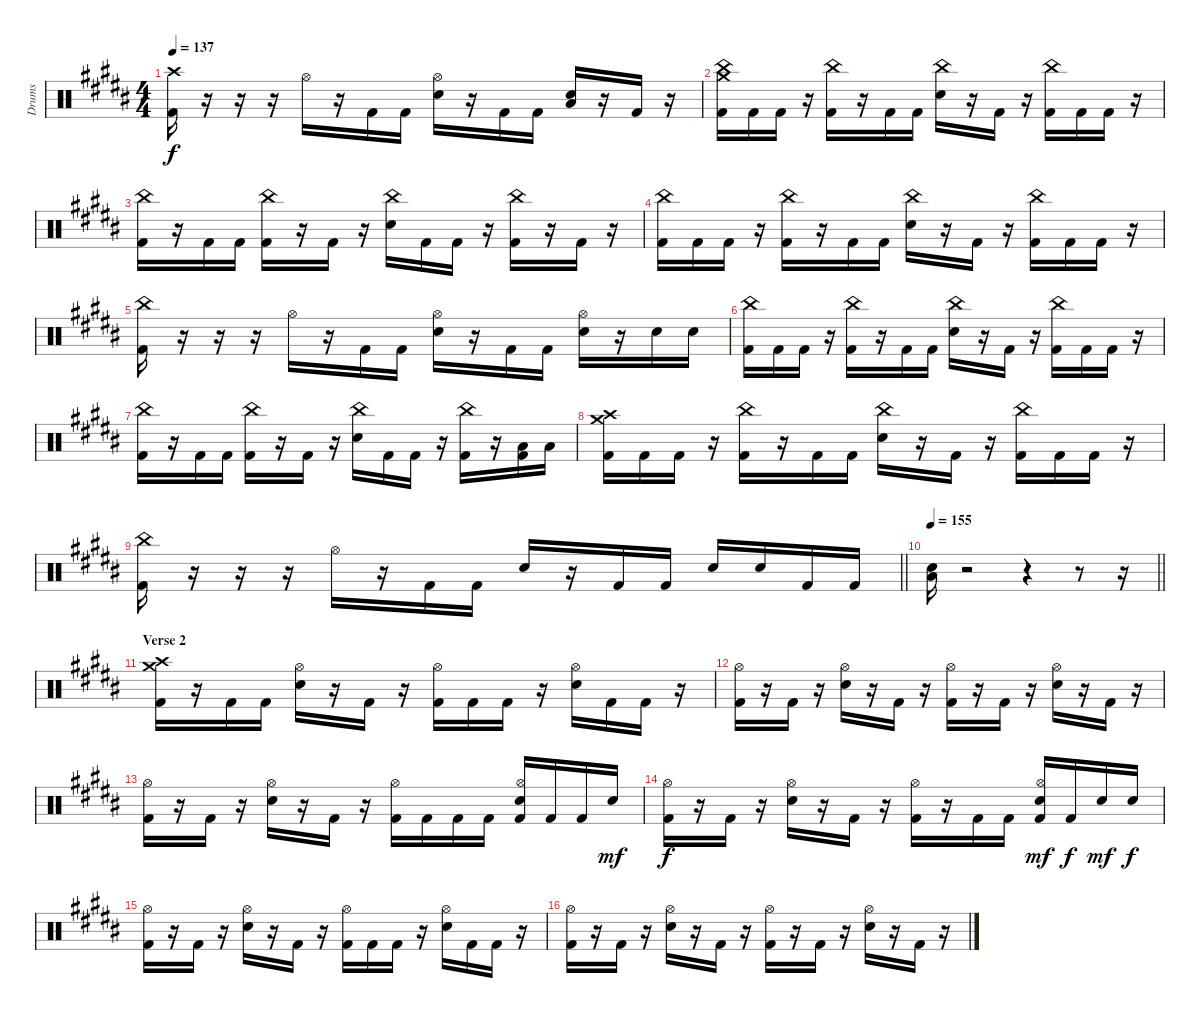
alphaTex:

\track ("Drums" "Drums") {instrument percussion}
\staff {score}
\articulation defaults
\ts (4 4)
\tempo 137
\clef neutral
\ks g#minor
("Crash high (hit)" "Kick (hit) 2").16{dy f} r.16 r.16 r.16 "Hi-Hat (open)".16 r.16 "Kick (hit) 2".16 "Kick (hit) 2".16 ("Hi-Hat (open)" "Electric Snare (hit)").16 r.16 "Kick (hit) 2".16 "Kick (hit) 2".16 ("Low Floor Tom (hit)" "Electric Snare (hit)").16 r.16 "Kick (hit) 2".16 r.16 |
("Crash medium (hit)" "China (hit)" "Kick (hit) 2").16 "Kick (hit) 2".16 "Kick (hit) 2".16 r.16 ("China (hit)" "Kick (hit) 2").16 r.16 "Kick (hit) 2".16 "Kick (hit) 2".16 ("China (hit)" "Electric Snare (hit)").16 r.16 "Kick (hit) 2".16 r.16 ("China (hit)" "Kick (hit) 2").16 "Kick (hit) 2".16 "Kick (hit) 2".16 r.16 |
("China (hit)" "Kick (hit) 2").16 r.16 "Kick (hit) 2".16 "Kick (hit) 2".16 ("China (hit)" "Kick (hit) 2").16 r.16 "Kick (hit) 2".16 r.16 ("China (hit)" "Electric Snare (hit)").16 "Kick (hit) 2".16 "Kick (hit) 2".16 r.16 ("China (hit)" "Kick (hit) 2").16 r.16 "Kick (hit) 2".16 r.16 |
("China (hit)" "Kick (hit) 2").16 "Kick (hit) 2".16 "Kick (hit) 2".16 r.16 ("China (hit)" "Kick (hit) 2").16 r.16 "Kick (hit) 2".16 "Kick (hit) 2".16 ("China (hit)" "Electric Snare (hit)").16 r.16 "Kick (hit) 2".16 r.16 ("China (hit)" "Kick (hit) 2").16 "Kick (hit) 2".16 "Kick (hit) 2".16 r.16 |
("China (hit)" "Kick (hit) 2").16 r.16 r.16 r.16 "Hi-Hat (open)".16 r.16 "Kick (hit) 2".16 "Kick (hit) 2".16 ("Hi-Hat (open)" "Electric Snare (hit)").16 r.16 "Kick (hit) 2".16 "Kick (hit) 2".16 ("Hi-Hat (open)" "Electric Snare (hit)").16 r.16 "Electric Snare (hit)".16 "Electric Snare (hit)".16 |
("China (hit)" "Kick (hit) 2").16 "Kick (hit) 2".16 "Kick (hit) 2".16 r.16 ("China (hit)" "Kick (hit) 2").16 r.16 "Kick (hit) 2".16 "Kick (hit) 2".16 ("China (hit)" "Electric Snare (hit)").16 r.16 "Kick (hit) 2".16 r.16 ("China (hit)" "Kick (hit) 2").16 "Kick (hit) 2".16 "Kick (hit) 2".16 r.16 |
("China (hit)" "Kick (hit) 2").16 r.16 "Kick (hit) 2".16 "Kick (hit) 2".16 ("China (hit)" "Kick (hit) 2").16 r.16 "Kick (hit) 2".16 r.16 ("China (hit)" "Electric Snare (hit)").16 "Kick (hit) 2".16 "Kick (hit) 2".16 r.16 ("China (hit)" "Kick (hit) 2").16 r.16 ("Low Floor Tom (hit)" "Kick (hit) 2").16 "Low Floor Tom (hit)".16 |
("Crash high (hit)" "Crash medium (hit)" "Kick (hit) 2").16 "Kick (hit) 2".16 "Kick (hit) 2".16 r.16 ("China (hit)" "Kick (hit) 2").16 r.16 "Kick (hit) 2".16 "Kick (hit) 2".16 ("China (hit)" "Electric Snare (hit)").16 r.16 "Kick (hit) 2".16 r.16 ("China (hit)" "Kick (hit) 2").16 "Kick (hit) 2".16 "Kick (hit) 2".16 r.16 |
\barLineRight lightlight
("China (hit)" "Kick (hit) 2").16 r.16 r.16 r.16 "Hi-Hat (open)".16 r.16 "Kick (hit) 2".16 "Kick (hit) 2".16 "Electric Snare (hit)".16 r.16 "Kick (hit) 2".16 "Kick (hit) 2".16 "Electric Snare (hit)".16 "Electric Snare (hit)".16 "Kick (hit) 2".16 "Kick (hit) 2".16 |
\tempo 155
\barLineRight lightlight
("Electric Snare (hit)" "Low Floor Tom (hit)").16 r.2 r.4 r.8 r.16 |
\section ("" "Verse 2")
("Crash high (hit)" "Crash medium (hit)" "Kick (hit) 2").16 r.16 "Kick (hit) 2".16 "Kick (hit) 2".16 ("Hi-Hat (open)" "Electric Snare (hit)").16 r.16 "Kick (hit) 2".16 r.16 ("Hi-Hat (open)" "Kick (hit) 2").16 "Kick (hit) 2".16 "Kick (hit) 2".16 r.16 ("Hi-Hat (open)" "Electric Snare (hit)").16 "Kick (hit) 2".16 "Kick (hit) 2".16 r.16 |
("Hi-Hat (open)" "Kick (hit) 2").16 r.16 "Kick (hit) 2".16 r.16 ("Hi-Hat (open)" "Electric Snare (hit)").16 r.16 "Kick (hit) 2".16 r.16 ("Hi-Hat (open)" "Kick (hit) 2").16 r.16 "Kick (hit) 2".16 r.16 ("Hi-Hat (open)" "Electric Snare (hit)").16 r.16 "Kick (hit) 2".16 r.16 |
("Hi-Hat (open)" "Kick (hit) 2").16 r.16 "Kick (hit) 2".16 r.16 ("Hi-Hat (open)" "Electric Snare (hit)").16 r.16 "Kick (hit) 2".16 r.16 ("Hi-Hat (open)" "Kick (hit) 2").16 "Kick (hit) 2".16 "Kick (hit) 2".16 "Kick (hit) 2".16 ("Hi-Hat (open)" "Electric Snare (hit)" "Kick (hit) 2").16 "Kick (hit) 2".16 "Kick (hit) 2".16 "Electric Snare (hit)".16{dy mf} |
("Hi-Hat (open)" "Kick (hit) 2").16{dy f} r.16 "Kick (hit) 2".16 r.16 ("Hi-Hat (open)" "Electric Snare (hit)").16 r.16 "Kick (hit) 2".16 r.16 ("Hi-Hat (open)" "Kick (hit) 2").16 r.16 "Kick (hit) 2".16 "Kick (hit) 2".16 ("Hi-Hat (open)" "Electric Snare (hit)" "Kick (hit) 2").16{dy mf} "Kick (hit) 2".16{dy f} "Electric Snare (hit)".16{dy mf} "Electric Snare (hit)".16{dy f} |
("Hi-Hat (open)" "Kick (hit) 2").16 r.16 "Kick (hit) 2".16 r.16 ("Hi-Hat (open)" "Electric Snare (hit)").16 r.16 "Kick (hit) 2".16 r.16 ("Hi-Hat (open)" "Kick (hit) 2").16 "Kick (hit) 2".16 "Kick (hit) 2".16 r.16 ("Hi-Hat (open)" "Electric Snare (hit)").16 "Kick (hit) 2".16 "Kick (hit) 2".16 r.16 |
("Hi-Hat (open)" "Kick (hit) 2").16 r.16 "Kick (hit) 2".16 r.16 ("Hi-Hat (open)" "Electric Snare (hit)").16 r.16 "Kick (hit) 2".16 r.16 ("Hi-Hat (open)" "Kick (hit) 2").16 r.16 "Kick (hit) 2".16 r.16 ("Hi-Hat (open)" "Electric Snare (hit)").16 r.16 "Kick (hit) 2".16 r.16
